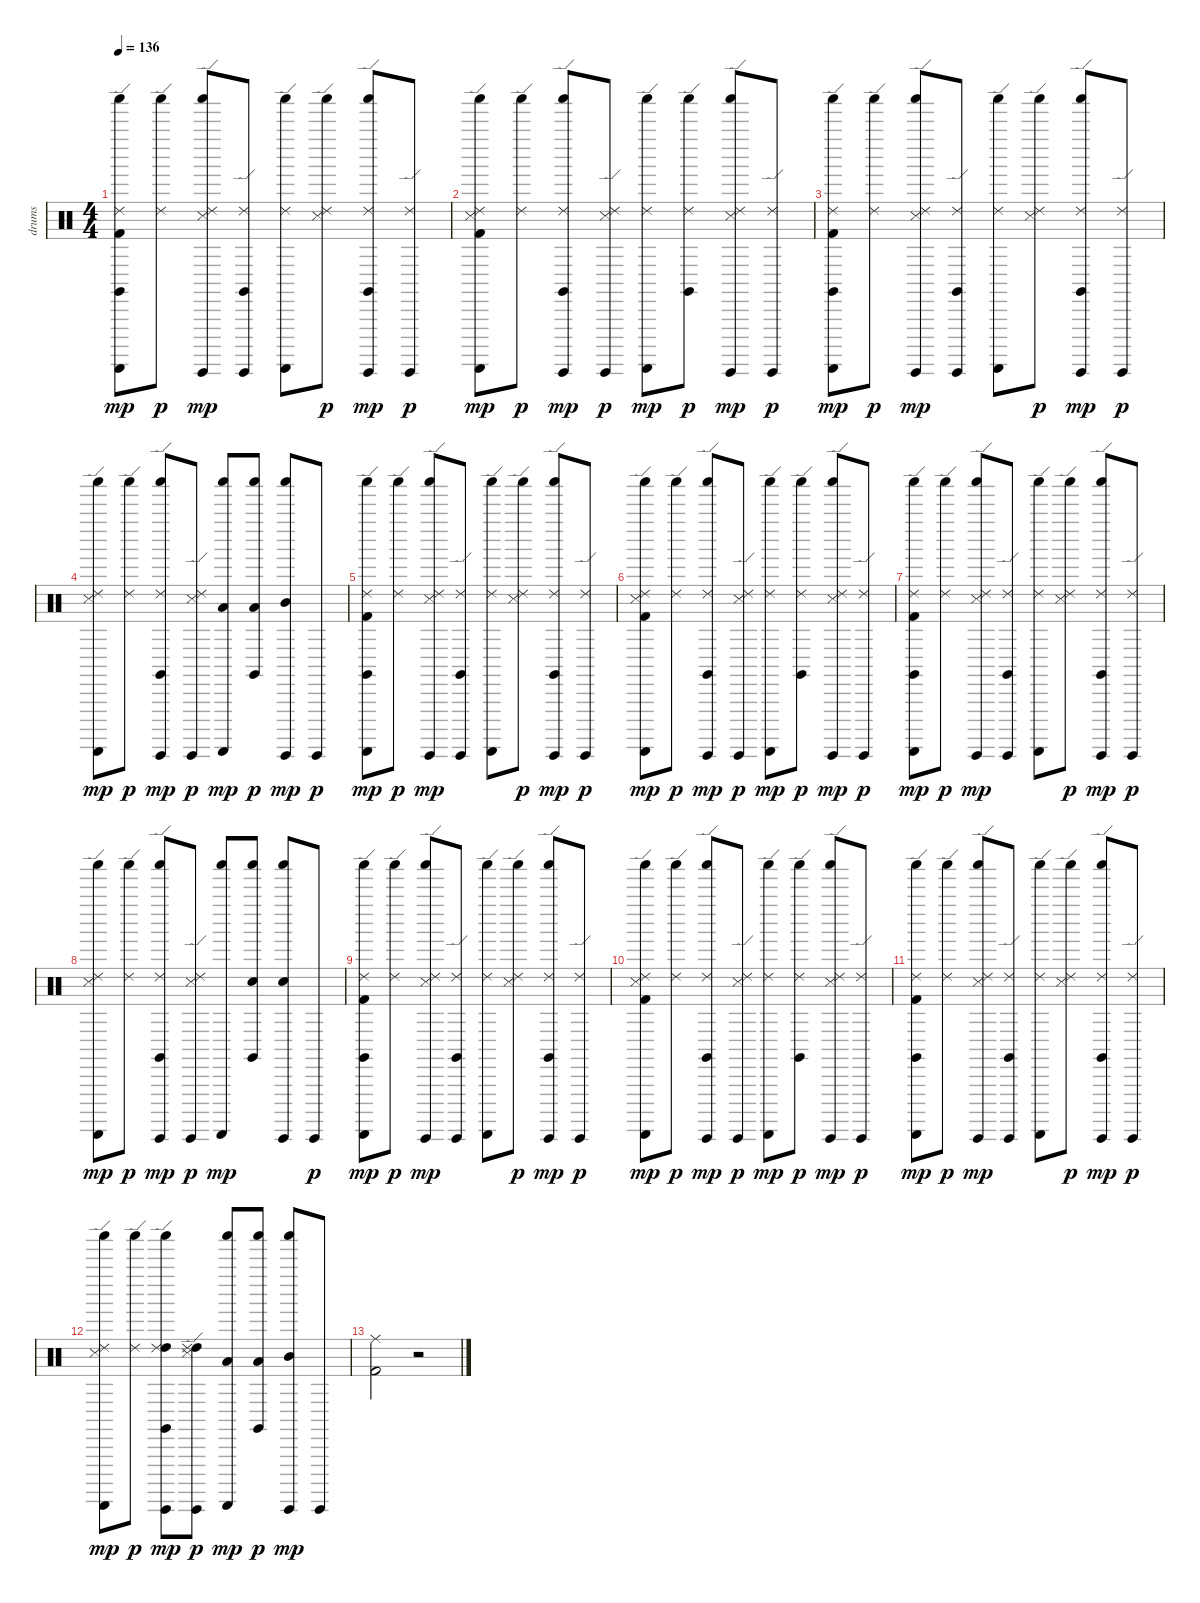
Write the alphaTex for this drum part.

\track ("drums" "drums") {instrument percussion}
\staff {score}
\articulation defaults
\ts (4 4)
\tempo 136
\clef neutral
\ks c
("Kick (hit) 2" "Ride (edge) 2" "Guiro (scrap-return)" "Claves (hit)" "Shaker (hit)").8{dy mp} ("Ride (edge) 2" "Shaker (hit)").8{dy p} ("Snare (side stick) 3" "Ride (edge) 2" "Guiro (hit)" "Shaker (hit)").8{dy mp} ("Ride (edge) 2" "Guiro (hit)" "Claves (hit)").8 ("Ride (edge) 2" "Guiro (scrap-return)" "Shaker (hit)").8 ("Snare (side stick) 3" "Ride (edge) 2" "Shaker (hit)").8{dy p} ("Ride (edge) 2" "Guiro (hit)" "Claves (hit)" "Shaker (hit)").8{dy mp} ("Ride (edge) 2" "Guiro (hit)").8{dy p} |
("Kick (hit) 2" "Snare (side stick) 3" "Ride (edge) 2" "Guiro (scrap-return)" "Shaker (hit)").8{dy mp} ("Ride (edge) 2" "Shaker (hit)").8{dy p} ("Ride (edge) 2" "Guiro (hit)" "Claves (hit)" "Shaker (hit)").8{dy mp} ("Snare (side stick) 3" "Ride (edge) 2" "Guiro (hit)").8{dy p} ("Ride (edge) 2" "Guiro (scrap-return)" "Shaker (hit)").8{dy mp} ("Ride (edge) 2" "Claves (hit)" "Shaker (hit)").8{dy p} ("Snare (side stick) 3" "Ride (edge) 2" "Guiro (hit)" "Shaker (hit)").8{dy mp} ("Ride (edge) 2" "Guiro (hit)").8{dy p} |
("Kick (hit) 2" "Ride (edge) 2" "Guiro (scrap-return)" "Claves (hit)" "Shaker (hit)").8{dy mp} ("Ride (edge) 2" "Shaker (hit)").8{dy p} ("Snare (side stick) 3" "Ride (edge) 2" "Guiro (hit)" "Shaker (hit)").8{dy mp} ("Ride (edge) 2" "Guiro (hit)" "Claves (hit)").8 ("Ride (edge) 2" "Guiro (scrap-return)" "Shaker (hit)").8 ("Snare (side stick) 3" "Ride (edge) 2" "Shaker (hit)").8{dy p} ("Ride (edge) 2" "Guiro (hit)" "Claves (hit)" "Shaker (hit)").8{dy mp} ("Ride (edge) 2" "Guiro (hit)").8{dy p} |
("Snare (side stick) 3" "Ride (edge) 2" "Guiro (scrap-return)" "Shaker (hit)").8{dy mp} ("Ride (edge) 2" "Shaker (hit)").8{dy p} ("Ride (edge) 2" "Guiro (hit)" "Claves (hit)" "Shaker (hit)").8{dy mp} ("Snare (side stick) 3" "Ride (edge) 2" "Guiro (hit)").8{dy p} ("Low Tom (hit)" "Guiro (scrap-return)" "Shaker (hit)").8{dy mp} ("Low Tom (hit)" "Claves (hit)" "Shaker (hit)").8{dy p} ("Mid Tom (hit)" "Guiro (hit)" "Shaker (hit)").8{dy mp} "Guiro (hit)".8{dy p} |
("Kick (hit) 2" "Ride (edge) 2" "Guiro (scrap-return)" "Claves (hit)" "Shaker (hit)").8{dy mp} ("Ride (edge) 2" "Shaker (hit)").8{dy p} ("Snare (side stick) 3" "Ride (edge) 2" "Guiro (hit)" "Shaker (hit)").8{dy mp} ("Ride (edge) 2" "Guiro (hit)" "Claves (hit)").8 ("Ride (edge) 2" "Guiro (scrap-return)" "Shaker (hit)").8 ("Snare (side stick) 3" "Ride (edge) 2" "Shaker (hit)").8{dy p} ("Ride (edge) 2" "Guiro (hit)" "Claves (hit)" "Shaker (hit)").8{dy mp} ("Ride (edge) 2" "Guiro (hit)").8{dy p} |
("Kick (hit) 2" "Snare (side stick) 3" "Ride (edge) 2" "Guiro (scrap-return)" "Shaker (hit)").8{dy mp} ("Ride (edge) 2" "Shaker (hit)").8{dy p} ("Ride (edge) 2" "Guiro (hit)" "Claves (hit)" "Shaker (hit)").8{dy mp} ("Snare (side stick) 3" "Ride (edge) 2" "Guiro (hit)").8{dy p} ("Ride (edge) 2" "Guiro (scrap-return)" "Shaker (hit)").8{dy mp} ("Ride (edge) 2" "Claves (hit)" "Shaker (hit)").8{dy p} ("Snare (side stick) 3" "Ride (edge) 2" "Guiro (hit)" "Shaker (hit)").8{dy mp} ("Ride (edge) 2" "Guiro (hit)").8{dy p} |
("Kick (hit) 2" "Ride (edge) 2" "Guiro (scrap-return)" "Claves (hit)" "Shaker (hit)").8{dy mp} ("Ride (edge) 2" "Shaker (hit)").8{dy p} ("Snare (side stick) 3" "Ride (edge) 2" "Guiro (hit)" "Shaker (hit)").8{dy mp} ("Ride (edge) 2" "Guiro (hit)" "Claves (hit)").8 ("Ride (edge) 2" "Guiro (scrap-return)" "Shaker (hit)").8 ("Snare (side stick) 3" "Ride (edge) 2" "Shaker (hit)").8{dy p} ("Ride (edge) 2" "Guiro (hit)" "Claves (hit)" "Shaker (hit)").8{dy mp} ("Ride (edge) 2" "Guiro (hit)").8{dy p} |
("Snare (side stick) 3" "Ride (edge) 2" "Guiro (scrap-return)" "Shaker (hit)").8{dy mp} ("Ride (edge) 2" "Shaker (hit)").8{dy p} ("Ride (edge) 2" "Guiro (hit)" "Claves (hit)" "Shaker (hit)").8{dy mp} ("Snare (side stick) 3" "Ride (edge) 2" "Guiro (hit)").8{dy p} ("Guiro (scrap-return)" "Shaker (hit)").8{dy mp} ("Snare (hit) 2" "Claves (hit)" "Shaker (hit)").8 ("Snare (hit) 2" "Guiro (hit)" "Shaker (hit)").8 "Guiro (hit)".8{dy p} |
("Kick (hit) 2" "Ride (edge) 2" "Guiro (scrap-return)" "Claves (hit)" "Shaker (hit)").8{dy mp} ("Ride (edge) 2" "Shaker (hit)").8{dy p} ("Snare (side stick) 3" "Ride (edge) 2" "Guiro (hit)" "Shaker (hit)").8{dy mp} ("Ride (edge) 2" "Guiro (hit)" "Claves (hit)").8 ("Ride (edge) 2" "Guiro (scrap-return)" "Shaker (hit)").8 ("Snare (side stick) 3" "Ride (edge) 2" "Shaker (hit)").8{dy p} ("Ride (edge) 2" "Guiro (hit)" "Claves (hit)" "Shaker (hit)").8{dy mp} ("Ride (edge) 2" "Guiro (hit)").8{dy p} |
("Kick (hit) 2" "Snare (side stick) 3" "Ride (edge) 2" "Guiro (scrap-return)" "Shaker (hit)").8{dy mp} ("Ride (edge) 2" "Shaker (hit)").8{dy p} ("Ride (edge) 2" "Guiro (hit)" "Claves (hit)" "Shaker (hit)").8{dy mp} ("Snare (side stick) 3" "Ride (edge) 2" "Guiro (hit)").8{dy p} ("Ride (edge) 2" "Guiro (scrap-return)" "Shaker (hit)").8{dy mp} ("Ride (edge) 2" "Claves (hit)" "Shaker (hit)").8{dy p} ("Snare (side stick) 3" "Ride (edge) 2" "Guiro (hit)" "Shaker (hit)").8{dy mp} ("Ride (edge) 2" "Guiro (hit)").8{dy p} |
("Kick (hit) 2" "Ride (edge) 2" "Guiro (scrap-return)" "Claves (hit)" "Shaker (hit)").8{dy mp} ("Ride (edge) 2" "Shaker (hit)").8{dy p} ("Snare (side stick) 3" "Ride (edge) 2" "Guiro (hit)" "Shaker (hit)").8{dy mp} ("Ride (edge) 2" "Guiro (hit)" "Claves (hit)").8 ("Ride (edge) 2" "Guiro (scrap-return)" "Shaker (hit)").8 ("Snare (side stick) 3" "Ride (edge) 2" "Shaker (hit)").8{dy p} ("Ride (edge) 2" "Guiro (hit)" "Claves (hit)" "Shaker (hit)").8{dy mp} ("Ride (edge) 2" "Guiro (hit)").8{dy p} |
("Snare (side stick) 3" "Ride (edge) 2" "Guiro (scrap-return)" "Shaker (hit)").8{dy mp} ("Ride (edge) 2" "Shaker (hit)").8{dy p} ("High Tom (hit)" "Ride (edge) 2" "Guiro (hit)" "Claves (hit)" "Shaker (hit)").8{dy mp} ("Snare (side stick) 3" "High Tom (hit)" "Ride (edge) 2" "Guiro (hit)").8{dy p} ("Low Tom (hit)" "Guiro (scrap-return)" "Shaker (hit)").8{dy mp} ("Low Tom (hit)" "Claves (hit)" "Shaker (hit)").8{dy p} ("Mid Tom (hit)" "Guiro (hit)" "Shaker (hit)").8{dy mp} "Guiro (hit)".8 |
("Kick (hit) 2" "Ride (middle)").2 r.2
